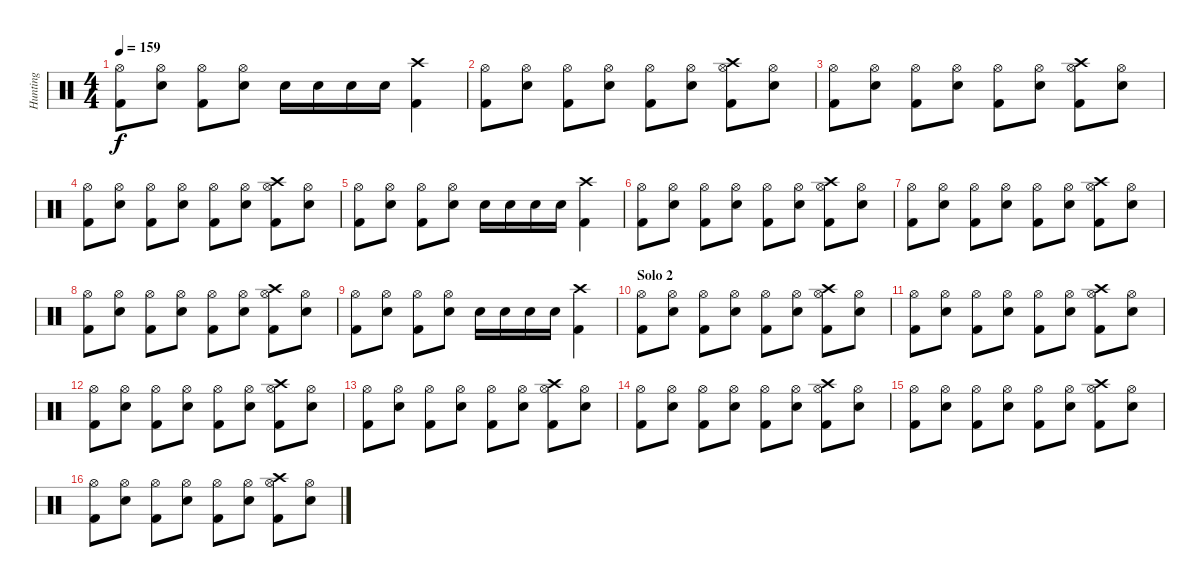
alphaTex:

\track ("Hunting" "Hunting") {instrument percussion}
\staff {score}
\articulation defaults
\ts (4 4)
\tempo 159
\clef neutral
\ks c
("Hi-Hat (open)" "Kick (hit) 2").8{dy f} ("Hi-Hat (open)" "Snare (hit) 2").8 ("Hi-Hat (open)" "Kick (hit) 2").8 ("Hi-Hat (open)" "Snare (hit) 2").8 "Snare (hit) 2".16 "Snare (hit) 2".16 "Snare (hit) 2".16 "Snare (hit) 2".16 ("Crash high (hit)" "Kick (hit) 2").4 |
("Hi-Hat (open)" "Kick (hit) 2").8 ("Hi-Hat (open)" "Snare (hit) 2").8 ("Hi-Hat (open)" "Kick (hit) 2").8 ("Hi-Hat (open)" "Snare (hit) 2").8 ("Hi-Hat (open)" "Kick (hit) 2").8 ("Hi-Hat (open)" "Snare (hit) 2").8 ("Crash high (hit)" "Hi-Hat (open)" "Kick (hit) 2").8 ("Hi-Hat (open)" "Snare (hit) 2").8 |
("Hi-Hat (open)" "Kick (hit) 2").8 ("Hi-Hat (open)" "Snare (hit) 2").8 ("Hi-Hat (open)" "Kick (hit) 2").8 ("Hi-Hat (open)" "Snare (hit) 2").8 ("Hi-Hat (open)" "Kick (hit) 2").8 ("Hi-Hat (open)" "Snare (hit) 2").8 ("Crash high (hit)" "Hi-Hat (open)" "Kick (hit) 2").8 ("Hi-Hat (open)" "Snare (hit) 2").8 |
("Hi-Hat (open)" "Kick (hit) 2").8 ("Hi-Hat (open)" "Snare (hit) 2").8 ("Hi-Hat (open)" "Kick (hit) 2").8 ("Hi-Hat (open)" "Snare (hit) 2").8 ("Hi-Hat (open)" "Kick (hit) 2").8 ("Hi-Hat (open)" "Snare (hit) 2").8 ("Crash high (hit)" "Hi-Hat (open)" "Kick (hit) 2").8 ("Hi-Hat (open)" "Snare (hit) 2").8 |
("Hi-Hat (open)" "Kick (hit) 2").8 ("Hi-Hat (open)" "Snare (hit) 2").8 ("Hi-Hat (open)" "Kick (hit) 2").8 ("Hi-Hat (open)" "Snare (hit) 2").8 "Snare (hit) 2".16 "Snare (hit) 2".16 "Snare (hit) 2".16 "Snare (hit) 2".16 ("Crash high (hit)" "Kick (hit) 2").4 |
("Hi-Hat (open)" "Kick (hit) 2").8 ("Hi-Hat (open)" "Snare (hit) 2").8 ("Hi-Hat (open)" "Kick (hit) 2").8 ("Hi-Hat (open)" "Snare (hit) 2").8 ("Hi-Hat (open)" "Kick (hit) 2").8 ("Hi-Hat (open)" "Snare (hit) 2").8 ("Crash high (hit)" "Hi-Hat (open)" "Kick (hit) 2").8 ("Hi-Hat (open)" "Snare (hit) 2").8 |
("Hi-Hat (open)" "Kick (hit) 2").8 ("Hi-Hat (open)" "Snare (hit) 2").8 ("Hi-Hat (open)" "Kick (hit) 2").8 ("Hi-Hat (open)" "Snare (hit) 2").8 ("Hi-Hat (open)" "Kick (hit) 2").8 ("Hi-Hat (open)" "Snare (hit) 2").8 ("Crash high (hit)" "Hi-Hat (open)" "Kick (hit) 2").8 ("Hi-Hat (open)" "Snare (hit) 2").8 |
("Hi-Hat (open)" "Kick (hit) 2").8 ("Hi-Hat (open)" "Snare (hit) 2").8 ("Hi-Hat (open)" "Kick (hit) 2").8 ("Hi-Hat (open)" "Snare (hit) 2").8 ("Hi-Hat (open)" "Kick (hit) 2").8 ("Hi-Hat (open)" "Snare (hit) 2").8 ("Crash high (hit)" "Hi-Hat (open)" "Kick (hit) 2").8 ("Hi-Hat (open)" "Snare (hit) 2").8 |
("Hi-Hat (open)" "Kick (hit) 2").8 ("Hi-Hat (open)" "Snare (hit) 2").8 ("Hi-Hat (open)" "Kick (hit) 2").8 ("Hi-Hat (open)" "Snare (hit) 2").8 "Snare (hit) 2".16 "Snare (hit) 2".16 "Snare (hit) 2".16 "Snare (hit) 2".16 ("Crash high (hit)" "Kick (hit) 2").4 |
\section ("" "Solo 2")
("Hi-Hat (open)" "Kick (hit) 2").8 ("Hi-Hat (open)" "Snare (hit) 2").8 ("Hi-Hat (open)" "Kick (hit) 2").8 ("Hi-Hat (open)" "Snare (hit) 2").8 ("Hi-Hat (open)" "Kick (hit) 2").8 ("Hi-Hat (open)" "Snare (hit) 2").8 ("Crash high (hit)" "Hi-Hat (open)" "Kick (hit) 2").8 ("Hi-Hat (open)" "Snare (hit) 2").8 |
("Hi-Hat (open)" "Kick (hit) 2").8 ("Hi-Hat (open)" "Snare (hit) 2").8 ("Hi-Hat (open)" "Kick (hit) 2").8 ("Hi-Hat (open)" "Snare (hit) 2").8 ("Hi-Hat (open)" "Kick (hit) 2").8 ("Hi-Hat (open)" "Snare (hit) 2").8 ("Crash high (hit)" "Hi-Hat (open)" "Kick (hit) 2").8 ("Hi-Hat (open)" "Snare (hit) 2").8 |
("Hi-Hat (open)" "Kick (hit) 2").8 ("Hi-Hat (open)" "Snare (hit) 2").8 ("Hi-Hat (open)" "Kick (hit) 2").8 ("Hi-Hat (open)" "Snare (hit) 2").8 ("Hi-Hat (open)" "Kick (hit) 2").8 ("Hi-Hat (open)" "Snare (hit) 2").8 ("Crash high (hit)" "Hi-Hat (open)" "Kick (hit) 2").8 ("Hi-Hat (open)" "Snare (hit) 2").8 |
("Hi-Hat (open)" "Kick (hit) 2").8 ("Hi-Hat (open)" "Snare (hit) 2").8 ("Hi-Hat (open)" "Kick (hit) 2").8 ("Hi-Hat (open)" "Snare (hit) 2").8 ("Hi-Hat (open)" "Kick (hit) 2").8 ("Hi-Hat (open)" "Snare (hit) 2").8 ("Crash high (hit)" "Hi-Hat (open)" "Kick (hit) 2").8 ("Hi-Hat (open)" "Snare (hit) 2").8 |
("Hi-Hat (open)" "Kick (hit) 2").8 ("Hi-Hat (open)" "Snare (hit) 2").8 ("Hi-Hat (open)" "Kick (hit) 2").8 ("Hi-Hat (open)" "Snare (hit) 2").8 ("Hi-Hat (open)" "Kick (hit) 2").8 ("Hi-Hat (open)" "Snare (hit) 2").8 ("Crash high (hit)" "Hi-Hat (open)" "Kick (hit) 2").8 ("Hi-Hat (open)" "Snare (hit) 2").8 |
("Hi-Hat (open)" "Kick (hit) 2").8 ("Hi-Hat (open)" "Snare (hit) 2").8 ("Hi-Hat (open)" "Kick (hit) 2").8 ("Hi-Hat (open)" "Snare (hit) 2").8 ("Hi-Hat (open)" "Kick (hit) 2").8 ("Hi-Hat (open)" "Snare (hit) 2").8 ("Crash high (hit)" "Hi-Hat (open)" "Kick (hit) 2").8 ("Hi-Hat (open)" "Snare (hit) 2").8 |
("Hi-Hat (open)" "Kick (hit) 2").8 ("Hi-Hat (open)" "Snare (hit) 2").8 ("Hi-Hat (open)" "Kick (hit) 2").8 ("Hi-Hat (open)" "Snare (hit) 2").8 ("Hi-Hat (open)" "Kick (hit) 2").8 ("Hi-Hat (open)" "Snare (hit) 2").8 ("Crash high (hit)" "Hi-Hat (open)" "Kick (hit) 2").8 ("Hi-Hat (open)" "Snare (hit) 2").8
